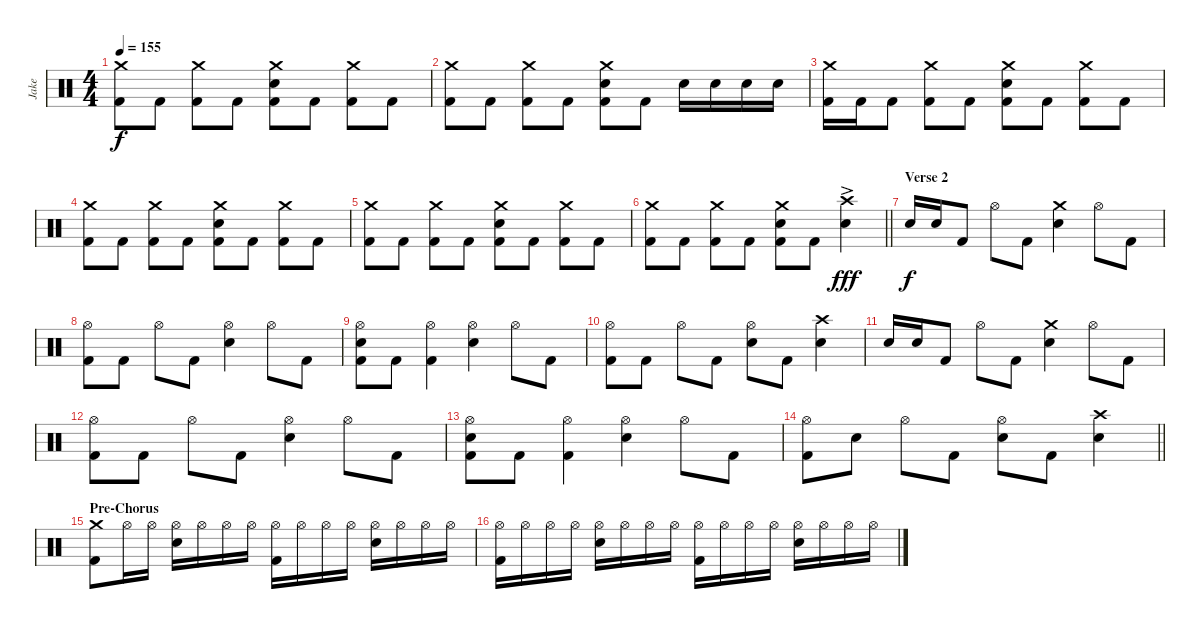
\track ("Jake" "Jake") {instrument percussion}
\staff {score}
\articulation defaults
\ts (4 4)
\tempo 155
\clef neutral
\ks c
("Crash medium (hit)" "Kick (hit) 2").8{dy f} "Kick (hit) 2".8 ("Crash medium (hit)" "Kick (hit) 2").8 "Kick (hit) 2".8 ("Crash medium (hit)" "Electric Snare (hit)" "Kick (hit) 2").8 "Kick (hit) 2".8 ("Crash medium (hit)" "Kick (hit) 2").8 "Kick (hit) 2".8 |
("Crash medium (hit)" "Kick (hit) 2").8 "Kick (hit) 2".8 ("Crash medium (hit)" "Kick (hit) 2").8 "Kick (hit) 2".8 ("Crash medium (hit)" "Electric Snare (hit)" "Kick (hit) 2").8 "Kick (hit) 2".8 "Electric Snare (hit)".16 "Electric Snare (hit)".16 "Electric Snare (hit)".16 "Electric Snare (hit)".16 |
("Crash medium (hit)" "Kick (hit) 2").16 "Kick (hit) 2".16 "Kick (hit) 2".8 ("Crash medium (hit)" "Kick (hit) 2").8 "Kick (hit) 2".8 ("Crash medium (hit)" "Electric Snare (hit)" "Kick (hit) 2").8 "Kick (hit) 2".8 ("Crash medium (hit)" "Kick (hit) 2").8 "Kick (hit) 2".8 |
("Crash medium (hit)" "Kick (hit) 2").8 "Kick (hit) 2".8 ("Crash medium (hit)" "Kick (hit) 2").8 "Kick (hit) 2".8 ("Crash medium (hit)" "Electric Snare (hit)" "Kick (hit) 2").8 "Kick (hit) 2".8 ("Crash medium (hit)" "Kick (hit) 2").8 "Kick (hit) 2".8 |
("Crash medium (hit)" "Kick (hit) 2").8 "Kick (hit) 2".8 ("Crash medium (hit)" "Kick (hit) 2").8 "Kick (hit) 2".8 ("Crash medium (hit)" "Electric Snare (hit)" "Kick (hit) 2").8 "Kick (hit) 2".8 ("Crash medium (hit)" "Kick (hit) 2").8 "Kick (hit) 2".8 |
\barLineRight lightlight
("Crash medium (hit)" "Kick (hit) 2").8 "Kick (hit) 2".8 ("Crash medium (hit)" "Kick (hit) 2").8 "Kick (hit) 2".8 ("Crash medium (hit)" "Electric Snare (hit)" "Kick (hit) 2").8 "Kick (hit) 2".8 ("Crash high (hit)" "Electric Snare (hit)"{ac}).4{dy fff} |
\section ("" "Verse 2")
"Electric Snare (hit)".16{dy f} "Electric Snare (hit)".16 "Kick (hit) 2".8 "Hi-Hat (open)".8 "Kick (hit) 2".8 ("Crash medium (hit)" "Electric Snare (hit)").4 "Hi-Hat (open)".8 "Kick (hit) 2".8 |
("Hi-Hat (open)" "Kick (hit) 2").8 "Kick (hit) 2".8 "Hi-Hat (open)".8 "Kick (hit) 2".8 ("Hi-Hat (open)" "Electric Snare (hit)").4 "Hi-Hat (open)".8 "Kick (hit) 2".8 |
("Hi-Hat (open)" "Electric Snare (hit)" "Kick (hit) 2").8 "Kick (hit) 2".8 ("Hi-Hat (open)" "Kick (hit) 2").4 ("Hi-Hat (open)" "Electric Snare (hit)").4 "Hi-Hat (open)".8 "Kick (hit) 2".8 |
("Hi-Hat (open)" "Kick (hit) 2").8 "Kick (hit) 2".8 "Hi-Hat (open)".8 "Kick (hit) 2".8 ("Hi-Hat (open)" "Electric Snare (hit)").8 "Kick (hit) 2".8 ("Crash high (hit)" "Electric Snare (hit)").4 |
"Electric Snare (hit)".16 "Electric Snare (hit)".16 "Kick (hit) 2".8 "Hi-Hat (open)".8 "Kick (hit) 2".8 ("Crash medium (hit)" "Electric Snare (hit)").4 "Hi-Hat (open)".8 "Kick (hit) 2".8 |
("Hi-Hat (open)" "Kick (hit) 2").8 "Kick (hit) 2".8 "Hi-Hat (open)".8 "Kick (hit) 2".8 ("Hi-Hat (open)" "Electric Snare (hit)").4 "Hi-Hat (open)".8 "Kick (hit) 2".8 |
("Hi-Hat (open)" "Electric Snare (hit)" "Kick (hit) 2").8 "Kick (hit) 2".8 ("Hi-Hat (open)" "Kick (hit) 2").4 ("Hi-Hat (open)" "Electric Snare (hit)").4 "Hi-Hat (open)".8 "Kick (hit) 2".8 |
\barLineRight lightlight
("Hi-Hat (open)" "Kick (hit) 2").8 "Electric Snare (hit)".8 "Hi-Hat (open)".8 "Kick (hit) 2".8 ("Hi-Hat (open)" "Electric Snare (hit)").8 "Kick (hit) 2".8 ("Crash high (hit)" "Electric Snare (hit)").4 |
\section ("" "Pre-Chorus")
("Crash medium (hit)" "Kick (hit) 2").8 "Hi-Hat (open)".16 "Hi-Hat (open)".16 ("Hi-Hat (open)" "Electric Snare (hit)").16 "Hi-Hat (open)".16 "Hi-Hat (open)".16 "Hi-Hat (open)".16 ("Hi-Hat (open)" "Kick (hit) 2").16 "Hi-Hat (open)".16 "Hi-Hat (open)".16 "Hi-Hat (open)".16 ("Hi-Hat (open)" "Electric Snare (hit)").16 "Hi-Hat (open)".16 "Hi-Hat (open)".16 "Hi-Hat (open)".16 |
("Hi-Hat (open)" "Kick (hit) 2").16 "Hi-Hat (open)".16 "Hi-Hat (open)".16 "Hi-Hat (open)".16 ("Hi-Hat (open)" "Electric Snare (hit)").16 "Hi-Hat (open)".16 "Hi-Hat (open)".16 "Hi-Hat (open)".16 ("Hi-Hat (open)" "Kick (hit) 2").16 "Hi-Hat (open)".16 "Hi-Hat (open)".16 "Hi-Hat (open)".16 ("Hi-Hat (open)" "Electric Snare (hit)").16 "Hi-Hat (open)".16 "Hi-Hat (open)".16 "Hi-Hat (open)".16
